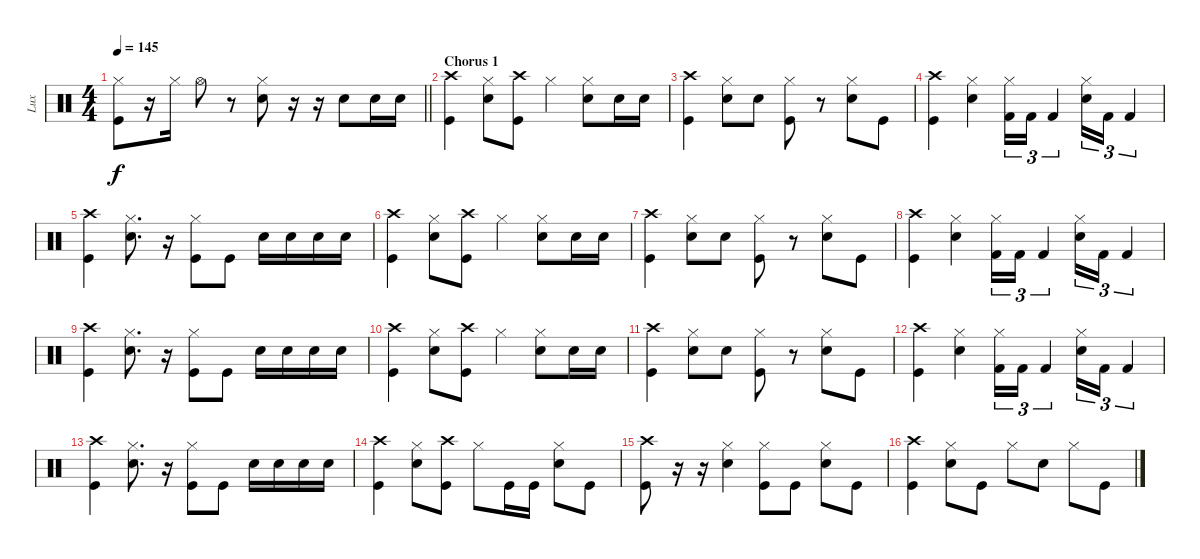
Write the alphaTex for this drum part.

\track ("Lux" "Lux") {mute instrument percussion}
\staff {score}
\articulation defaults
\ts (4 4)
\tempo 145
\clef neutral
\barLineRight lightlight
\ks c
("Hi-Hat (closed)" "Kick (hit)").8{dy f} r.16 "Hi-Hat (closed)".16 "Hi-Hat (open)".8 r.8 ("Hi-Hat (closed)" "Snare (hit) 2").8 r.16 r.16 "Snare (hit) 2".8 "Snare (hit) 2".16 "Snare (hit) 2".16 |
\section ("" "Chorus 1")
("Crash high (hit)" "Kick (hit)").4 ("Hi-Hat (closed)" "Snare (hit) 2").8 ("Crash high (hit)" "Kick (hit)").8 "Hi-Hat (closed)".4 ("Hi-Hat (closed)" "Snare (hit) 2").8 "Snare (hit) 2".16 "Snare (hit) 2".16 |
("Crash high (hit)" "Kick (hit)").4 ("Hi-Hat (closed)" "Snare (hit) 2").8 "Snare (hit) 2".8 ("Hi-Hat (closed)" "Kick (hit)").8 r.8 ("Hi-Hat (closed)" "Snare (hit) 2").8 "Kick (hit)".8 |
("Crash high (hit)" "Kick (hit)").4 ("Hi-Hat (closed)" "Snare (hit) 2").4 ("Hi-Hat (closed)" "Kick (hit) 2").16{tu (3 2)} "Kick (hit) 2".16{tu (3 2)} "Kick (hit) 2".4{tu (3 2)} ("Hi-Hat (closed)" "Snare (hit) 2").16{tu (3 2)} "Kick (hit) 2".16{tu (3 2)} "Kick (hit) 2".4{tu (3 2)} |
("Crash high (hit)" "Kick (hit)").4 ("Hi-Hat (closed)" "Snare (hit) 2").8{d} r.16 ("Hi-Hat (closed)" "Kick (hit)").8 "Kick (hit)".8 "Snare (hit) 2".16 "Snare (hit) 2".16 "Snare (hit) 2".16 "Snare (hit) 2".16 |
("Crash high (hit)" "Kick (hit)").4 ("Hi-Hat (closed)" "Snare (hit) 2").8 ("Crash high (hit)" "Kick (hit)").8 "Hi-Hat (closed)".4 ("Hi-Hat (closed)" "Snare (hit) 2").8 "Snare (hit) 2".16 "Snare (hit) 2".16 |
("Crash high (hit)" "Kick (hit)").4 ("Hi-Hat (closed)" "Snare (hit) 2").8 "Snare (hit) 2".8 ("Hi-Hat (closed)" "Kick (hit)").8 r.8 ("Hi-Hat (closed)" "Snare (hit) 2").8 "Kick (hit)".8 |
("Crash high (hit)" "Kick (hit)").4 ("Hi-Hat (closed)" "Snare (hit) 2").4 ("Hi-Hat (closed)" "Kick (hit) 2").16{tu (3 2)} "Kick (hit) 2".16{tu (3 2)} "Kick (hit) 2".4{tu (3 2)} ("Hi-Hat (closed)" "Snare (hit) 2").16{tu (3 2)} "Kick (hit) 2".16{tu (3 2)} "Kick (hit) 2".4{tu (3 2)} |
("Crash high (hit)" "Kick (hit)").4 ("Hi-Hat (closed)" "Snare (hit) 2").8{d} r.16 ("Hi-Hat (closed)" "Kick (hit)").8 "Kick (hit)".8 "Snare (hit) 2".16 "Snare (hit) 2".16 "Snare (hit) 2".16 "Snare (hit) 2".16 |
("Crash high (hit)" "Kick (hit)").4 ("Hi-Hat (closed)" "Snare (hit) 2").8 ("Crash high (hit)" "Kick (hit)").8 "Hi-Hat (closed)".4 ("Hi-Hat (closed)" "Snare (hit) 2").8 "Snare (hit) 2".16 "Snare (hit) 2".16 |
("Crash high (hit)" "Kick (hit)").4 ("Hi-Hat (closed)" "Snare (hit) 2").8 "Snare (hit) 2".8 ("Hi-Hat (closed)" "Kick (hit)").8 r.8 ("Hi-Hat (closed)" "Snare (hit) 2").8 "Kick (hit)".8 |
("Crash high (hit)" "Kick (hit)").4 ("Hi-Hat (closed)" "Snare (hit) 2").4 ("Hi-Hat (closed)" "Kick (hit) 2").16{tu (3 2)} "Kick (hit) 2".16{tu (3 2)} "Kick (hit) 2".4{tu (3 2)} ("Hi-Hat (closed)" "Snare (hit) 2").16{tu (3 2)} "Kick (hit) 2".16{tu (3 2)} "Kick (hit) 2".4{tu (3 2)} |
("Crash high (hit)" "Kick (hit)").4 ("Hi-Hat (closed)" "Snare (hit) 2").8{d} r.16 ("Hi-Hat (closed)" "Kick (hit)").8 "Kick (hit)".8 "Snare (hit) 2".16 "Snare (hit) 2".16 "Snare (hit) 2".16 "Snare (hit) 2".16 |
("Crash high (hit)" "Kick (hit)").4 ("Hi-Hat (closed)" "Snare (hit) 2").8 ("Crash high (hit)" "Kick (hit)").8 "Hi-Hat (closed)".8 "Kick (hit)".16 "Kick (hit)".16 ("Hi-Hat (closed)" "Snare (hit) 2").8 "Kick (hit)".8 |
("Crash high (hit)" "Kick (hit)").8 r.16 r.16 ("Hi-Hat (closed)" "Snare (hit) 2").4 ("Hi-Hat (closed)" "Kick (hit)").8 "Kick (hit)".8 ("Hi-Hat (closed)" "Snare (hit) 2").8 "Kick (hit)".8 |
("Crash high (hit)" "Kick (hit)").4 ("Hi-Hat (closed)" "Snare (hit) 2").8 "Kick (hit)".8 "Hi-Hat (closed)".8 "Snare (hit) 2".8 "Hi-Hat (closed)".8 "Kick (hit)".8
